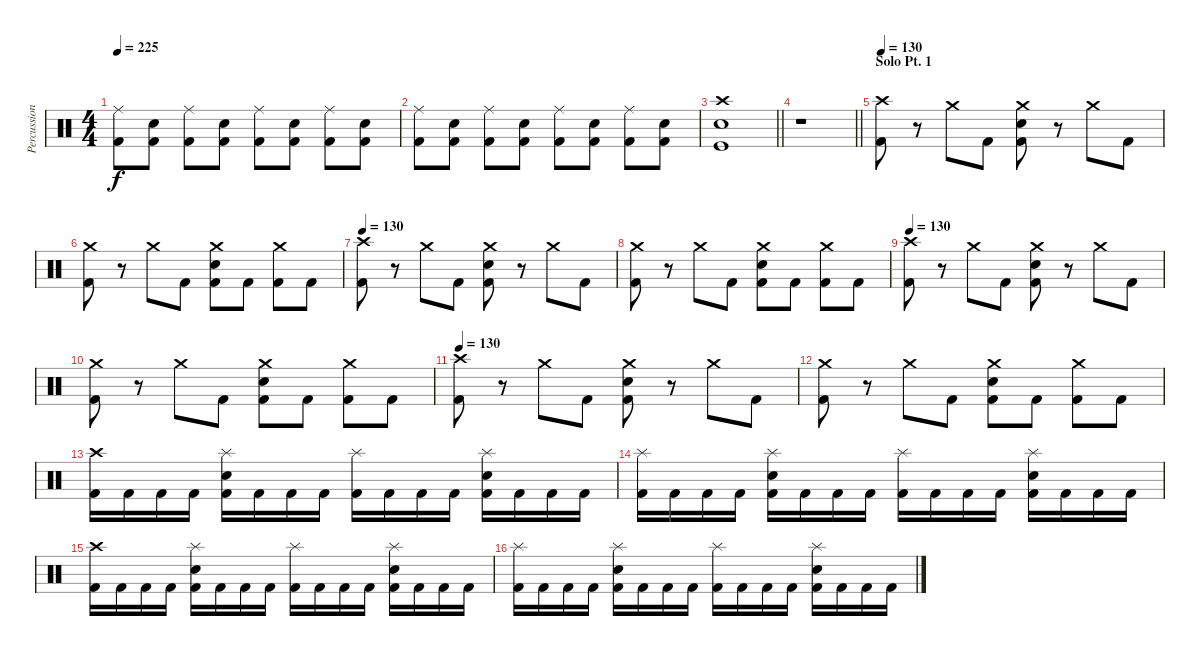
\track ("Percussion" "Percussion") {instrument percussion}
\staff {score}
\articulation defaults
\ts (4 4)
\tempo 225
\clef neutral
\ks c
("Ride (middle)" "Kick (hit) 2").8{dy f} ("Electric Snare (hit)" "Kick (hit) 2").8 ("Ride (middle)" "Kick (hit) 2").8 ("Electric Snare (hit)" "Kick (hit) 2").8 ("Ride (middle)" "Kick (hit) 2").8 ("Electric Snare (hit)" "Kick (hit) 2").8 ("Ride (middle)" "Kick (hit) 2").8 ("Electric Snare (hit)" "Kick (hit) 2").8 |
("Ride (middle)" "Kick (hit) 2").8 ("Electric Snare (hit)" "Kick (hit) 2").8 ("Ride (middle)" "Kick (hit) 2").8 ("Electric Snare (hit)" "Kick (hit) 2").8 ("Ride (middle)" "Kick (hit) 2").8 ("Electric Snare (hit)" "Kick (hit) 2").8 ("Ride (middle)" "Kick (hit) 2").8 ("Electric Snare (hit)" "Kick (hit) 2").8 |
\barLineRight lightlight
("Crash high (hit)" "Electric Snare (hit)" "Kick (hit)").1 |
\barLineRight lightlight
r.1 |
\section ("" "Solo Pt. 1")
\tempo 130
("Crash high (hit)" "Kick (hit) 2").8 r.8 "Crash medium (hit)".8 "Kick (hit) 2".8 ("Crash medium (hit)" "Electric Snare (hit)" "Kick (hit) 2").8 r.8 "Crash medium (hit)".8 "Kick (hit) 2".8 |
("Crash medium (hit)" "Kick (hit) 2").8 r.8 "Crash medium (hit)".8 "Kick (hit) 2".8 ("Crash medium (hit)" "Electric Snare (hit)" "Kick (hit) 2").8 "Kick (hit) 2".8 ("Crash medium (hit)" "Kick (hit) 2").8 "Kick (hit) 2".8 |
\tempo 130
("Crash high (hit)" "Kick (hit) 2").8 r.8 "Crash medium (hit)".8 "Kick (hit) 2".8 ("Crash medium (hit)" "Electric Snare (hit)" "Kick (hit) 2").8 r.8 "Crash medium (hit)".8 "Kick (hit) 2".8 |
("Crash medium (hit)" "Kick (hit) 2").8 r.8 "Crash medium (hit)".8 "Kick (hit) 2".8 ("Crash medium (hit)" "Electric Snare (hit)" "Kick (hit) 2").8 "Kick (hit) 2".8 ("Crash medium (hit)" "Kick (hit) 2").8 "Kick (hit) 2".8 |
\tempo 130
("Crash high (hit)" "Kick (hit) 2").8 r.8 "Crash medium (hit)".8 "Kick (hit) 2".8 ("Crash medium (hit)" "Electric Snare (hit)" "Kick (hit) 2").8 r.8 "Crash medium (hit)".8 "Kick (hit) 2".8 |
("Crash medium (hit)" "Kick (hit) 2").8 r.8 "Crash medium (hit)".8 "Kick (hit) 2".8 ("Crash medium (hit)" "Electric Snare (hit)" "Kick (hit) 2").8 "Kick (hit) 2".8 ("Crash medium (hit)" "Kick (hit) 2").8 "Kick (hit) 2".8 |
\tempo 130
("Crash high (hit)" "Kick (hit) 2").8 r.8 "Crash medium (hit)".8 "Kick (hit) 2".8 ("Crash medium (hit)" "Electric Snare (hit)" "Kick (hit) 2").8 r.8 "Crash medium (hit)".8 "Kick (hit) 2".8 |
("Crash medium (hit)" "Kick (hit) 2").8 r.8 "Crash medium (hit)".8 "Kick (hit) 2".8 ("Crash medium (hit)" "Electric Snare (hit)" "Kick (hit) 2").8 "Kick (hit) 2".8 ("Crash medium (hit)" "Kick (hit) 2").8 "Kick (hit) 2".8 |
("Crash high (hit)" "Kick (hit) 2").16 "Kick (hit) 2".16 "Kick (hit) 2".16 "Kick (hit) 2".16 ("Splash (hit)" "Electric Snare (hit)" "Kick (hit) 2").16 "Kick (hit) 2".16 "Kick (hit) 2".16 "Kick (hit) 2".16 ("Splash (hit)" "Kick (hit) 2").16 "Kick (hit) 2".16 "Kick (hit) 2".16 "Kick (hit) 2".16 ("Splash (hit)" "Electric Snare (hit)" "Kick (hit) 2").16 "Kick (hit) 2".16 "Kick (hit) 2".16 "Kick (hit) 2".16 |
("Splash (hit)" "Kick (hit) 2").16 "Kick (hit) 2".16 "Kick (hit) 2".16 "Kick (hit) 2".16 ("Splash (hit)" "Electric Snare (hit)" "Kick (hit) 2").16 "Kick (hit) 2".16 "Kick (hit) 2".16 "Kick (hit) 2".16 ("Splash (hit)" "Kick (hit) 2").16 "Kick (hit) 2".16 "Kick (hit) 2".16 "Kick (hit) 2".16 ("Splash (hit)" "Electric Snare (hit)" "Kick (hit) 2").16 "Kick (hit) 2".16 "Kick (hit) 2".16 "Kick (hit) 2".16 |
("Crash high (hit)" "Kick (hit) 2").16 "Kick (hit) 2".16 "Kick (hit) 2".16 "Kick (hit) 2".16 ("Splash (hit)" "Electric Snare (hit)" "Kick (hit) 2").16 "Kick (hit) 2".16 "Kick (hit) 2".16 "Kick (hit) 2".16 ("Splash (hit)" "Kick (hit) 2").16 "Kick (hit) 2".16 "Kick (hit) 2".16 "Kick (hit) 2".16 ("Splash (hit)" "Electric Snare (hit)" "Kick (hit) 2").16 "Kick (hit) 2".16 "Kick (hit) 2".16 "Kick (hit) 2".16 |
("Splash (hit)" "Kick (hit) 2").16 "Kick (hit) 2".16 "Kick (hit) 2".16 "Kick (hit) 2".16 ("Splash (hit)" "Electric Snare (hit)" "Kick (hit) 2").16 "Kick (hit) 2".16 "Kick (hit) 2".16 "Kick (hit) 2".16 ("Splash (hit)" "Kick (hit) 2").16 "Kick (hit) 2".16 "Kick (hit) 2".16 "Kick (hit) 2".16 ("Splash (hit)" "Electric Snare (hit)" "Kick (hit) 2").16 "Kick (hit) 2".16 "Kick (hit) 2".16 "Kick (hit) 2".16
